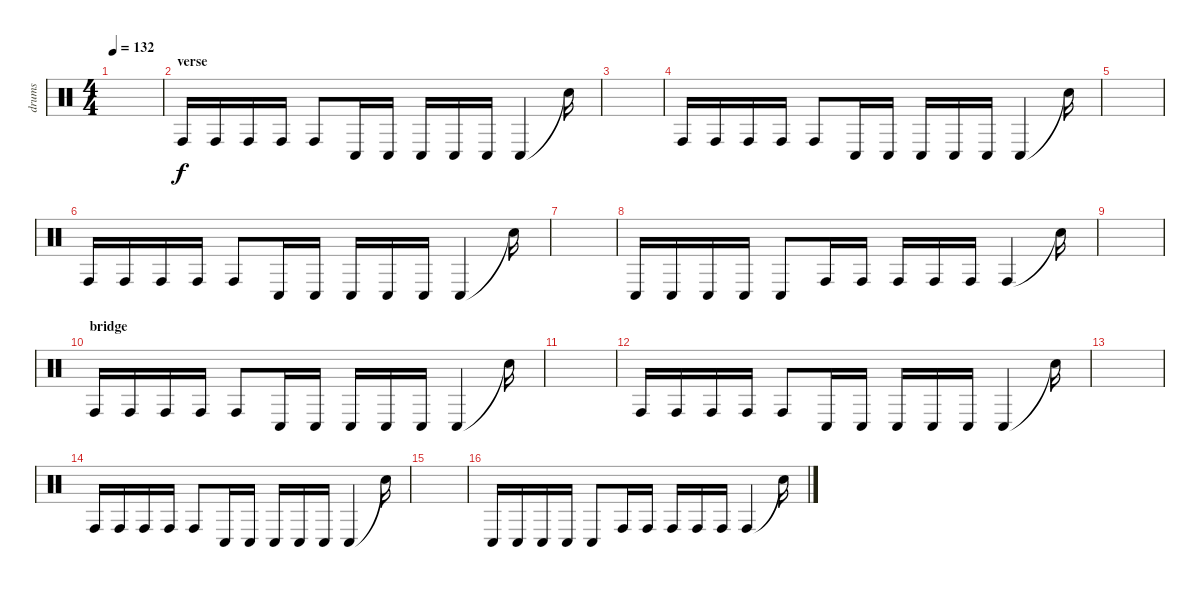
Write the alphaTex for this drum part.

\track ("drums" "drums") {instrument percussion}
\staff {score}
\articulation defaults
\ts (4 4)
\tempo 132
\clef neutral
\ks c
|
\section ("" "verse")
"Conga high (hit)".16 "Conga high (hit)".16 "Conga high (hit)".16 "Conga high (hit)".16 "Conga high (hit)".8 "Conga low (hit)".16 "Conga low (hit)".16 "Conga low (hit)".16 "Conga low (hit)".16 "Conga low (hit)".16 "Conga low (hit)".4 "Snare (hit)"{t}.16 |
|
"Conga high (hit)".16 "Conga high (hit)".16 "Conga high (hit)".16 "Conga high (hit)".16 "Conga high (hit)".8 "Conga low (hit)".16 "Conga low (hit)".16 "Conga low (hit)".16 "Conga low (hit)".16 "Conga low (hit)".16 "Conga low (hit)".4 "Snare (hit)"{t}.16 |
|
"Conga high (hit)".16 "Conga high (hit)".16 "Conga high (hit)".16 "Conga high (hit)".16 "Conga high (hit)".8 "Conga low (hit)".16 "Conga low (hit)".16 "Conga low (hit)".16 "Conga low (hit)".16 "Conga low (hit)".16 "Conga low (hit)".4 "Snare (hit)"{t}.16 |
|
"Conga low (hit)".16 "Conga low (hit)".16 "Conga low (hit)".16 "Conga low (hit)".16 "Conga low (hit)".8 "Conga high (hit)".16 "Conga high (hit)".16 "Conga high (hit)".16 "Conga high (hit)".16 "Conga high (hit)".16 "Conga high (hit)".4 "Snare (hit)"{t}.16 |
|
\section ("" "bridge")
"Conga high (hit)".16 "Conga high (hit)".16 "Conga high (hit)".16 "Conga high (hit)".16 "Conga high (hit)".8 "Conga low (hit)".16 "Conga low (hit)".16 "Conga low (hit)".16 "Conga low (hit)".16 "Conga low (hit)".16 "Conga low (hit)".4 "Snare (hit)"{t}.16 |
|
"Conga high (hit)".16 "Conga high (hit)".16 "Conga high (hit)".16 "Conga high (hit)".16 "Conga high (hit)".8 "Conga low (hit)".16 "Conga low (hit)".16 "Conga low (hit)".16 "Conga low (hit)".16 "Conga low (hit)".16 "Conga low (hit)".4 "Snare (hit)"{t}.16 |
|
"Conga high (hit)".16 "Conga high (hit)".16 "Conga high (hit)".16 "Conga high (hit)".16 "Conga high (hit)".8 "Conga low (hit)".16 "Conga low (hit)".16 "Conga low (hit)".16 "Conga low (hit)".16 "Conga low (hit)".16 "Conga low (hit)".4 "Snare (hit)"{t}.16 |
|
"Conga low (hit)".16 "Conga low (hit)".16 "Conga low (hit)".16 "Conga low (hit)".16 "Conga low (hit)".8 "Conga high (hit)".16 "Conga high (hit)".16 "Conga high (hit)".16 "Conga high (hit)".16 "Conga high (hit)".16 "Conga high (hit)".4 "Snare (hit)"{t}.16
